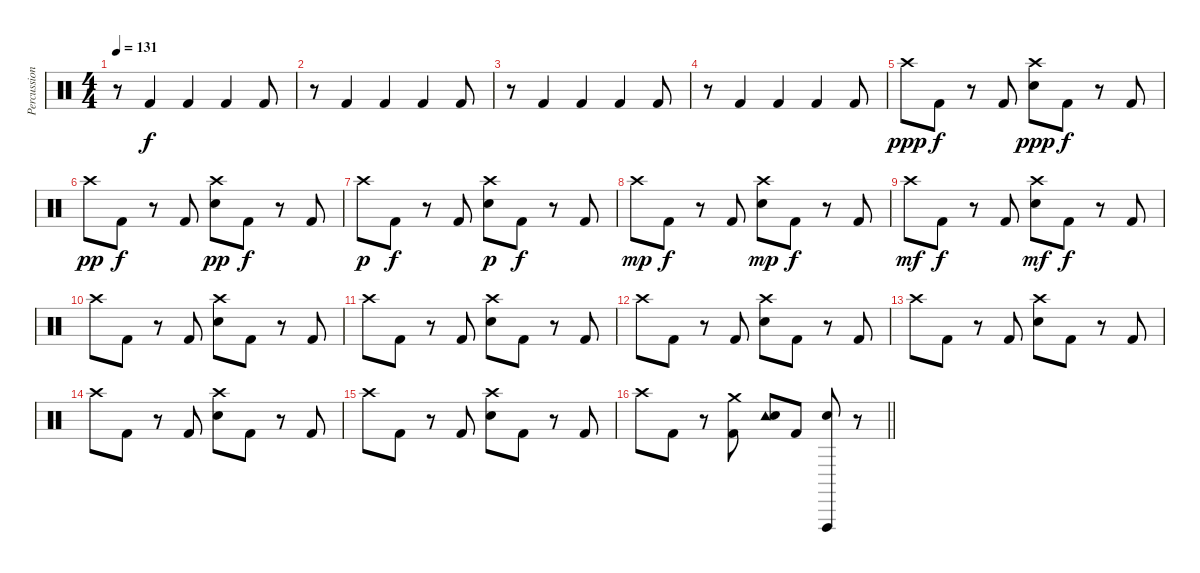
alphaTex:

\track ("Percussion" "Percussion") {instrument percussion}
\staff {score}
\articulation defaults
\ts (4 4)
\tempo 131
\clef neutral
\ks c
r.8{dy f} "Kick (hit) 2".4 "Kick (hit) 2".4 "Kick (hit) 2".4 "Kick (hit) 2".8 |
r.8 "Kick (hit) 2".4 "Kick (hit) 2".4 "Kick (hit) 2".4 "Kick (hit) 2".8 |
r.8 "Kick (hit) 2".4 "Kick (hit) 2".4 "Kick (hit) 2".4 "Kick (hit) 2".8 |
r.8 "Kick (hit) 2".4 "Kick (hit) 2".4 "Kick (hit) 2".4 "Kick (hit) 2".8 |
"Crash high (hit)".8{dy ppp} "Kick (hit) 2".8{dy f} r.8 "Kick (hit) 2".8 ("Crash high (hit)" "Snare (hit) 2").8{dy ppp} "Kick (hit) 2".8{dy f} r.8 "Kick (hit) 2".8 |
"Crash high (hit)".8{dy pp} "Kick (hit) 2".8{dy f} r.8 "Kick (hit) 2".8 ("Crash high (hit)" "Snare (hit) 2").8{dy pp} "Kick (hit) 2".8{dy f} r.8 "Kick (hit) 2".8 |
"Crash high (hit)".8{dy p} "Kick (hit) 2".8{dy f} r.8 "Kick (hit) 2".8 ("Crash high (hit)" "Snare (hit) 2").8{dy p} "Kick (hit) 2".8{dy f} r.8 "Kick (hit) 2".8 |
"Crash high (hit)".8{dy mp} "Kick (hit) 2".8{dy f} r.8 "Kick (hit) 2".8 ("Crash high (hit)" "Snare (hit) 2").8{dy mp} "Kick (hit) 2".8{dy f} r.8 "Kick (hit) 2".8 |
"Crash high (hit)".8{dy mf} "Kick (hit) 2".8{dy f} r.8 "Kick (hit) 2".8 ("Crash high (hit)" "Snare (hit) 2").8{dy mf} "Kick (hit) 2".8{dy f} r.8 "Kick (hit) 2".8 |
"Crash high (hit)".8 "Kick (hit) 2".8 r.8 "Kick (hit) 2".8 ("Crash high (hit)" "Snare (hit) 2").8 "Kick (hit) 2".8 r.8 "Kick (hit) 2".8 |
"Crash high (hit)".8 "Kick (hit) 2".8 r.8 "Kick (hit) 2".8 ("Crash high (hit)" "Snare (hit) 2").8 "Kick (hit) 2".8 r.8 "Kick (hit) 2".8 |
"Crash high (hit)".8 "Kick (hit) 2".8 r.8 "Kick (hit) 2".8 ("Crash high (hit)" "Snare (hit) 2").8 "Kick (hit) 2".8 r.8 "Kick (hit) 2".8 |
"Crash high (hit)".8 "Kick (hit) 2".8 r.8 "Kick (hit) 2".8 ("Crash high (hit)" "Snare (hit) 2").8 "Kick (hit) 2".8 r.8 "Kick (hit) 2".8 |
"Crash high (hit)".8 "Kick (hit) 2".8 r.8 "Kick (hit) 2".8 ("Crash high (hit)" "Snare (hit) 2").8 "Kick (hit) 2".8 r.8 "Kick (hit) 2".8 |
"Crash high (hit)".8 "Kick (hit) 2".8 r.8 "Kick (hit) 2".8 ("Crash high (hit)" "Snare (hit) 2").8 "Kick (hit) 2".8 r.8 "Kick (hit) 2".8 |
\barLineRight lightlight "Crash high (hit)".8 "Kick (hit) 2".8
r.8 ("Crash medium (hit)" "Kick (hit) 2").8 ("Tambourine (hit)" "Snare (hit) 2").8 "Kick (hit) 2".8 ("Vibraslap (hit)" "Snare (hit) 2").8 r.8
